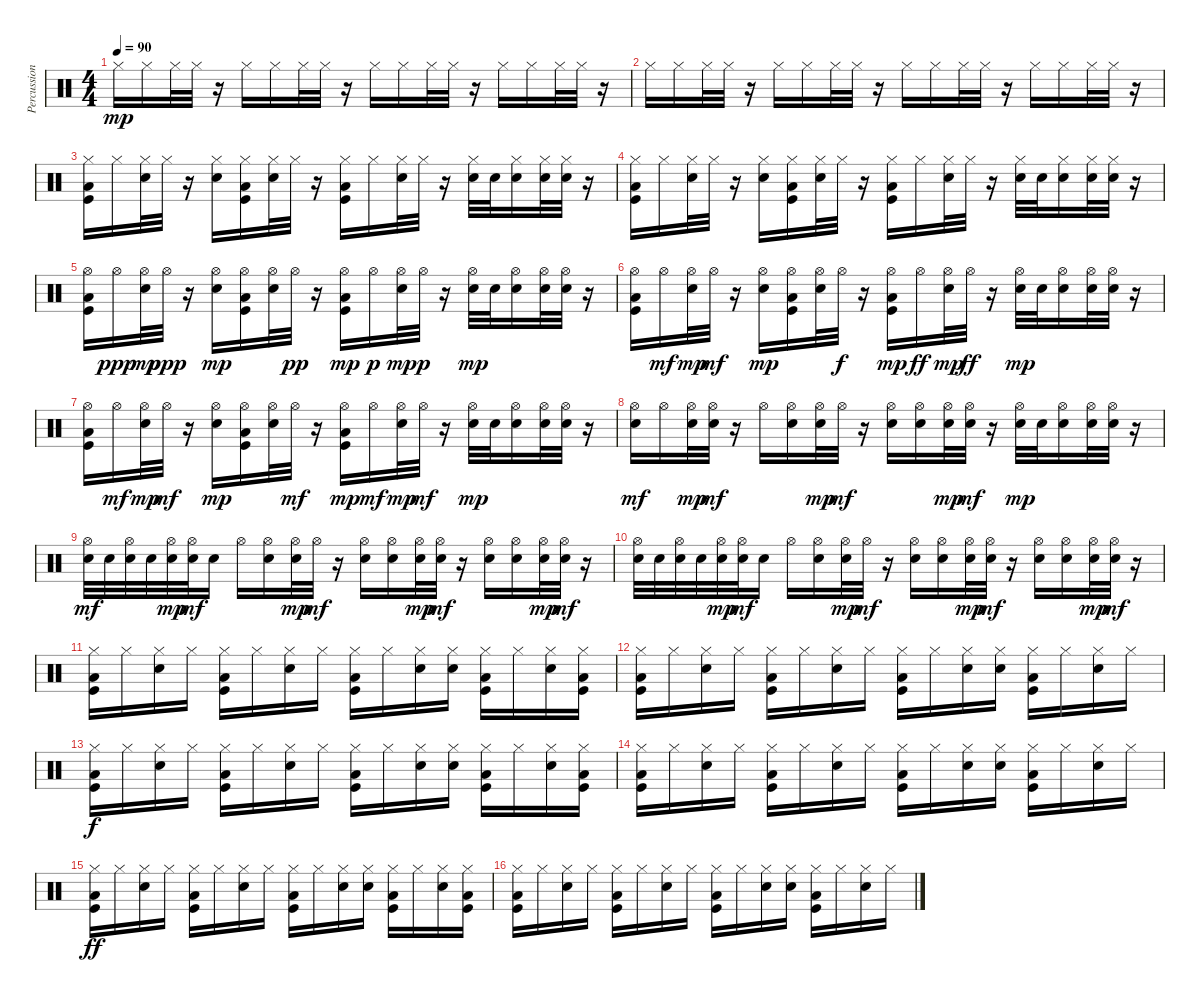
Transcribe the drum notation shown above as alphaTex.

\track ("Percussions" "Percussion") {instrument percussion}
\staff {score}
\articulation defaults
\ts (4 4)
\tempo 90
\clef neutral
\ks c "Hi-Hat (closed)".16{dy mp} "Hi-Hat (closed)".16 "Hi-Hat (closed)".32 "Hi-Hat (closed)".32
r.16 "Hi-Hat (closed)".16 "Hi-Hat (closed)".16 "Hi-Hat (closed)".32 "Hi-Hat (closed)".32 r.16 "Hi-Hat (closed)".16 "Hi-Hat (closed)".16 "Hi-Hat (closed)".32 "Hi-Hat (closed)".32 r.16 "Hi-Hat (closed)".16 "Hi-Hat (closed)".16 "Hi-Hat (closed)".32 "Hi-Hat (closed)".32 r.16 |
"Hi-Hat (closed)".16 "Hi-Hat (closed)".16 "Hi-Hat (closed)".32 "Hi-Hat (closed)".32 r.16 "Hi-Hat (closed)".16 "Hi-Hat (closed)".16 "Hi-Hat (closed)".32 "Hi-Hat (closed)".32 r.16 "Hi-Hat (closed)".16 "Hi-Hat (closed)".16 "Hi-Hat (closed)".32 "Hi-Hat (closed)".32 r.16 "Hi-Hat (closed)".16 "Hi-Hat (closed)".16 "Hi-Hat (closed)".32 "Hi-Hat (closed)".32 r.16 |
("Hi-Hat (closed)" "Kick (hit)" "Low Floor Tom (hit)").16 "Hi-Hat (closed)".16 ("Hi-Hat (closed)" "Snare (hit) 2").32 "Hi-Hat (closed)".32 r.16 ("Hi-Hat (closed)" "Snare (hit) 2").16 ("Hi-Hat (closed)" "Kick (hit)" "Low Floor Tom (hit)").16 ("Hi-Hat (closed)" "Snare (hit) 2").32 "Hi-Hat (closed)".32 r.16 ("Hi-Hat (closed)" "Kick (hit)" "Low Floor Tom (hit)").16 "Hi-Hat (closed)".16 ("Hi-Hat (closed)" "Snare (hit) 2").32 "Hi-Hat (closed)".32 r.16 ("Hi-Hat (closed)" "Snare (hit) 2").32 "Snare (hit) 2".32 ("Hi-Hat (closed)" "Snare (hit) 2").16 ("Hi-Hat (closed)" "Snare (hit) 2").32 ("Hi-Hat (closed)" "Snare (hit) 2").32 r.16 |
("Hi-Hat (closed)" "Kick (hit)" "Low Floor Tom (hit)").16 "Hi-Hat (closed)".16 ("Hi-Hat (closed)" "Snare (hit) 2").32 "Hi-Hat (closed)".32 r.16 ("Hi-Hat (closed)" "Snare (hit) 2").16 ("Hi-Hat (closed)" "Kick (hit)" "Low Floor Tom (hit)").16 ("Hi-Hat (closed)" "Snare (hit) 2").32 "Hi-Hat (closed)".32 r.16 ("Hi-Hat (closed)" "Kick (hit)" "Low Floor Tom (hit)").16 "Hi-Hat (closed)".16 ("Hi-Hat (closed)" "Snare (hit) 2").32 "Hi-Hat (closed)".32 r.16 ("Hi-Hat (closed)" "Snare (hit) 2").32 "Snare (hit) 2".32 ("Hi-Hat (closed)" "Snare (hit) 2").16 ("Hi-Hat (closed)" "Snare (hit) 2").32 ("Hi-Hat (closed)" "Snare (hit) 2").32 r.16 |
("Hi-Hat (open)" "Kick (hit)" "Low Floor Tom (hit)").16 "Hi-Hat (open)".16{dy ppp} ("Hi-Hat (open)" "Snare (hit) 2").32{dy mp} "Hi-Hat (open)".32{dy ppp} r.16 ("Hi-Hat (open)" "Snare (hit) 2").16{dy mp} ("Hi-Hat (open)" "Kick (hit)" "Low Floor Tom (hit)").16 ("Hi-Hat (open)" "Snare (hit) 2").32 "Hi-Hat (open)".32{dy pp} r.16 ("Hi-Hat (open)" "Kick (hit)" "Low Floor Tom (hit)").16{dy mp} "Hi-Hat (open)".16{dy p} ("Hi-Hat (open)" "Snare (hit) 2").32{dy mp} "Hi-Hat (open)".32{dy p} r.16 ("Hi-Hat (open)" "Snare (hit) 2").32{dy mp} "Snare (hit) 2".32 ("Hi-Hat (open)" "Snare (hit) 2").16 ("Hi-Hat (open)" "Snare (hit) 2").32 ("Hi-Hat (open)" "Snare (hit) 2").32 r.16 |
("Hi-Hat (open)" "Kick (hit)" "Low Floor Tom (hit)").16 "Hi-Hat (open)".16{dy mf} ("Hi-Hat (open)" "Snare (hit) 2").32{dy mp} "Hi-Hat (open)".32{dy mf} r.16 ("Hi-Hat (open)" "Snare (hit) 2").16{dy mp} ("Hi-Hat (open)" "Kick (hit)" "Low Floor Tom (hit)").16 ("Hi-Hat (open)" "Snare (hit) 2").32 "Hi-Hat (open)".32{dy f} r.16 ("Hi-Hat (open)" "Kick (hit)" "Low Floor Tom (hit)").16{dy mp} "Hi-Hat (open)".16{dy ff} ("Hi-Hat (open)" "Snare (hit) 2").32{dy mp} "Hi-Hat (open)".32{dy ff} r.16 ("Hi-Hat (open)" "Snare (hit) 2").32{dy mp} "Snare (hit) 2".32 ("Hi-Hat (open)" "Snare (hit) 2").16 ("Hi-Hat (open)" "Snare (hit) 2").32 ("Hi-Hat (open)" "Snare (hit) 2").32 r.16 |
("Hi-Hat (open)" "Kick (hit)" "Low Floor Tom (hit)").16 "Hi-Hat (open)".16{dy mf} ("Hi-Hat (open)" "Snare (hit) 2").32{dy mp} "Hi-Hat (open)".32{dy mf} r.16 ("Hi-Hat (open)" "Snare (hit) 2").16{dy mp} ("Hi-Hat (open)" "Kick (hit)" "Low Floor Tom (hit)").16 ("Hi-Hat (open)" "Snare (hit) 2").32 "Hi-Hat (open)".32{dy mf} r.16 ("Hi-Hat (open)" "Kick (hit)" "Low Floor Tom (hit)").16{dy mp} "Hi-Hat (open)".16{dy mf} ("Hi-Hat (open)" "Snare (hit) 2").32{dy mp} "Hi-Hat (open)".32{dy mf} r.16 ("Hi-Hat (open)" "Snare (hit) 2").32{dy mp} "Snare (hit) 2".32 ("Hi-Hat (open)" "Snare (hit) 2").16 ("Hi-Hat (open)" "Snare (hit) 2").32 ("Hi-Hat (open)" "Snare (hit) 2").32 r.16 |
("Hi-Hat (open)" "Snare (hit) 2").16{dy mf} "Hi-Hat (open)".16 ("Hi-Hat (open)" "Snare (hit) 2").32{dy mp} ("Hi-Hat (open)" "Snare (hit) 2").32{dy mf} r.16 "Hi-Hat (open)".16 ("Hi-Hat (open)" "Snare (hit) 2").16 ("Hi-Hat (open)" "Snare (hit) 2").32{dy mp} "Hi-Hat (open)".32{dy mf} r.16 ("Hi-Hat (open)" "Snare (hit) 2").16 ("Hi-Hat (open)" "Snare (hit) 2").16 ("Hi-Hat (open)" "Snare (hit) 2").32{dy mp} ("Hi-Hat (open)" "Snare (hit) 2").32{dy mf} r.16 ("Hi-Hat (open)" "Snare (hit) 2").32{dy mp} "Snare (hit) 2".32 ("Hi-Hat (open)" "Snare (hit) 2").16 ("Hi-Hat (open)" "Snare (hit) 2").32 ("Hi-Hat (open)" "Snare (hit) 2").32 r.16 |
("Hi-Hat (open)" "Snare (hit) 2").32{dy mf} "Snare (hit) 2".32 ("Hi-Hat (open)" "Snare (hit) 2").32 "Snare (hit) 2".32 ("Hi-Hat (open)" "Snare (hit) 2").32{dy mp} ("Hi-Hat (open)" "Snare (hit) 2").32{dy mf} "Snare (hit) 2".16 "Hi-Hat (open)".16 ("Hi-Hat (open)" "Snare (hit) 2").16 ("Hi-Hat (open)" "Snare (hit) 2").32{dy mp} "Hi-Hat (open)".32{dy mf} r.16 ("Hi-Hat (open)" "Snare (hit) 2").16 ("Hi-Hat (open)" "Snare (hit) 2").16 ("Hi-Hat (open)" "Snare (hit) 2").32{dy mp} ("Hi-Hat (open)" "Snare (hit) 2").32{dy mf} r.16 ("Hi-Hat (open)" "Snare (hit) 2").16 ("Hi-Hat (open)" "Snare (hit) 2").16 ("Hi-Hat (open)" "Snare (hit) 2").32{dy mp} ("Hi-Hat (open)" "Snare (hit) 2").32{dy mf} r.16 |
("Hi-Hat (open)" "Snare (hit) 2").32 "Snare (hit) 2".32 ("Hi-Hat (open)" "Snare (hit) 2").32 "Snare (hit) 2".32 ("Hi-Hat (open)" "Snare (hit) 2").32{dy mp} ("Hi-Hat (open)" "Snare (hit) 2").32{dy mf} "Snare (hit) 2".16 "Hi-Hat (open)".16 ("Hi-Hat (open)" "Snare (hit) 2").16 ("Hi-Hat (open)" "Snare (hit) 2").32{dy mp} "Hi-Hat (open)".32{dy mf} r.16 ("Hi-Hat (open)" "Snare (hit) 2").16 ("Hi-Hat (open)" "Snare (hit) 2").16 ("Hi-Hat (open)" "Snare (hit) 2").32{dy mp} ("Hi-Hat (open)" "Snare (hit) 2").32{dy mf} r.16 ("Hi-Hat (open)" "Snare (hit) 2").16 ("Hi-Hat (open)" "Snare (hit) 2").16 ("Hi-Hat (open)" "Snare (hit) 2").32{dy mp} ("Hi-Hat (open)" "Snare (hit) 2").32{dy mf} r.16 |
("Kick (hit)" "Low Floor Tom (hit)" "Hi-Hat (closed)").16 "Hi-Hat (closed)".16 ("Snare (hit) 2" "Hi-Hat (closed)").16 "Hi-Hat (closed)".16 ("Kick (hit)" "Low Floor Tom (hit)" "Hi-Hat (closed)").16 "Hi-Hat (closed)".16 ("Snare (hit) 2" "Hi-Hat (closed)").16 "Hi-Hat (closed)".16 ("Kick (hit)" "Low Floor Tom (hit)" "Hi-Hat (closed)").16 "Hi-Hat (closed)".16 ("Snare (hit) 2" "Hi-Hat (closed)").16 ("Hi-Hat (closed)" "Snare (hit) 2").16 ("Kick (hit)" "Low Floor Tom (hit)" "Hi-Hat (closed)").16 "Hi-Hat (closed)".16 ("Snare (hit) 2" "Hi-Hat (closed)").16 ("Hi-Hat (closed)" "Kick (hit)" "Low Floor Tom (hit)").16 |
("Kick (hit)" "Low Floor Tom (hit)" "Hi-Hat (closed)").16 "Hi-Hat (closed)".16 ("Snare (hit) 2" "Hi-Hat (closed)").16 "Hi-Hat (closed)".16 ("Kick (hit)" "Low Floor Tom (hit)" "Hi-Hat (closed)").16 "Hi-Hat (closed)".16 ("Snare (hit) 2" "Hi-Hat (closed)").16 "Hi-Hat (closed)".16 ("Kick (hit)" "Low Floor Tom (hit)" "Hi-Hat (closed)").16 "Hi-Hat (closed)".16 ("Snare (hit) 2" "Hi-Hat (closed)").16 ("Hi-Hat (closed)" "Snare (hit) 2").16 ("Kick (hit)" "Low Floor Tom (hit)" "Hi-Hat (closed)").16 "Hi-Hat (closed)".16 ("Snare (hit) 2" "Hi-Hat (closed)").16 "Hi-Hat (closed)".16 |
("Kick (hit)" "Low Floor Tom (hit)" "Hi-Hat (closed)").16{dy f} "Hi-Hat (closed)".16 ("Snare (hit) 2" "Hi-Hat (closed)").16 "Hi-Hat (closed)".16 ("Kick (hit)" "Low Floor Tom (hit)" "Hi-Hat (closed)").16 "Hi-Hat (closed)".16 ("Snare (hit) 2" "Hi-Hat (closed)").16 "Hi-Hat (closed)".16 ("Kick (hit)" "Low Floor Tom (hit)" "Hi-Hat (closed)").16 "Hi-Hat (closed)".16 ("Snare (hit) 2" "Hi-Hat (closed)").16 ("Hi-Hat (closed)" "Snare (hit) 2").16 ("Kick (hit)" "Low Floor Tom (hit)" "Hi-Hat (closed)").16 "Hi-Hat (closed)".16 ("Snare (hit) 2" "Hi-Hat (closed)").16 ("Hi-Hat (closed)" "Kick (hit)" "Low Floor Tom (hit)").16 |
("Kick (hit)" "Low Floor Tom (hit)" "Hi-Hat (closed)").16 "Hi-Hat (closed)".16 ("Snare (hit) 2" "Hi-Hat (closed)").16 "Hi-Hat (closed)".16 ("Kick (hit)" "Low Floor Tom (hit)" "Hi-Hat (closed)").16 "Hi-Hat (closed)".16 ("Snare (hit) 2" "Hi-Hat (closed)").16 "Hi-Hat (closed)".16 ("Kick (hit)" "Low Floor Tom (hit)" "Hi-Hat (closed)").16 "Hi-Hat (closed)".16 ("Snare (hit) 2" "Hi-Hat (closed)").16 ("Hi-Hat (closed)" "Snare (hit) 2").16 ("Kick (hit)" "Low Floor Tom (hit)" "Hi-Hat (closed)").16 "Hi-Hat (closed)".16 ("Snare (hit) 2" "Hi-Hat (closed)").16 "Hi-Hat (closed)".16 |
("Kick (hit)" "Low Floor Tom (hit)" "Hi-Hat (closed)").16{dy ff} "Hi-Hat (closed)".16 ("Snare (hit) 2" "Hi-Hat (closed)").16 "Hi-Hat (closed)".16 ("Kick (hit)" "Low Floor Tom (hit)" "Hi-Hat (closed)").16 "Hi-Hat (closed)".16 ("Snare (hit) 2" "Hi-Hat (closed)").16 "Hi-Hat (closed)".16 ("Kick (hit)" "Low Floor Tom (hit)" "Hi-Hat (closed)").16 "Hi-Hat (closed)".16 ("Snare (hit) 2" "Hi-Hat (closed)").16 ("Hi-Hat (closed)" "Snare (hit) 2").16 ("Kick (hit)" "Low Floor Tom (hit)" "Hi-Hat (closed)").16 "Hi-Hat (closed)".16 ("Snare (hit) 2" "Hi-Hat (closed)").16 ("Hi-Hat (closed)" "Kick (hit)" "Low Floor Tom (hit)").16 |
("Kick (hit)" "Low Floor Tom (hit)" "Hi-Hat (closed)").16 "Hi-Hat (closed)".16 ("Snare (hit) 2" "Hi-Hat (closed)").16 "Hi-Hat (closed)".16 ("Kick (hit)" "Low Floor Tom (hit)" "Hi-Hat (closed)").16 "Hi-Hat (closed)".16 ("Snare (hit) 2" "Hi-Hat (closed)").16 "Hi-Hat (closed)".16 ("Kick (hit)" "Low Floor Tom (hit)" "Hi-Hat (closed)").16 "Hi-Hat (closed)".16 ("Snare (hit) 2" "Hi-Hat (closed)").16 ("Hi-Hat (closed)" "Snare (hit) 2").16 ("Kick (hit)" "Low Floor Tom (hit)" "Hi-Hat (closed)").16 "Hi-Hat (closed)".16 ("Snare (hit) 2" "Hi-Hat (closed)").16 "Hi-Hat (closed)".16
